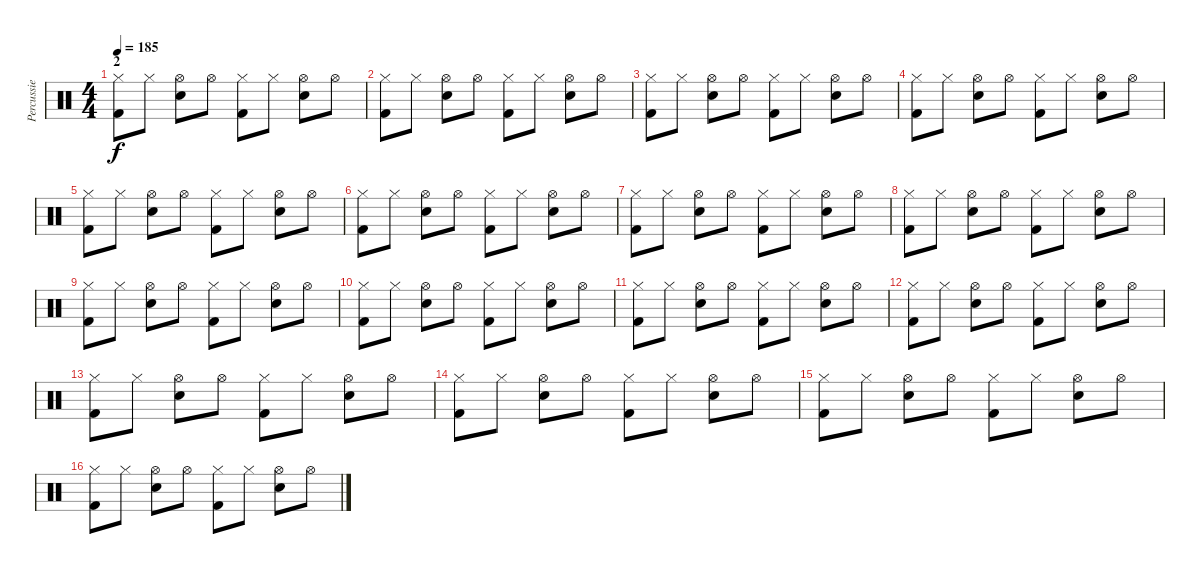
\track ("Percussie" "Percussie") {instrument percussion}
\staff {score}
\articulation defaults
\ts (4 4)
\section ("" "2")
\tempo 185
\clef neutral
\ks c
("Hi-Hat (closed)" "Kick (hit) 2").8{dy f} "Hi-Hat (closed)".8 ("Hi-Hat (open)" "Snare (hit) 2").8 "Hi-Hat (open)".8 ("Hi-Hat (closed)" "Kick (hit) 2").8 "Hi-Hat (closed)".8 ("Hi-Hat (open)" "Snare (hit) 2").8 "Hi-Hat (open)".8 |
("Hi-Hat (closed)" "Kick (hit) 2").8 "Hi-Hat (closed)".8 ("Hi-Hat (open)" "Snare (hit) 2").8 "Hi-Hat (open)".8 ("Hi-Hat (closed)" "Kick (hit) 2").8 "Hi-Hat (closed)".8 ("Hi-Hat (open)" "Snare (hit) 2").8 "Hi-Hat (open)".8 |
("Hi-Hat (closed)" "Kick (hit) 2").8 "Hi-Hat (closed)".8 ("Hi-Hat (open)" "Snare (hit) 2").8 "Hi-Hat (open)".8 ("Hi-Hat (closed)" "Kick (hit) 2").8 "Hi-Hat (closed)".8 ("Hi-Hat (open)" "Snare (hit) 2").8 "Hi-Hat (open)".8 |
("Hi-Hat (closed)" "Kick (hit) 2").8 "Hi-Hat (closed)".8 ("Hi-Hat (open)" "Snare (hit) 2").8 "Hi-Hat (open)".8 ("Hi-Hat (closed)" "Kick (hit) 2").8 "Hi-Hat (closed)".8 ("Hi-Hat (open)" "Snare (hit) 2").8 "Hi-Hat (open)".8 |
("Hi-Hat (closed)" "Kick (hit) 2").8 "Hi-Hat (closed)".8 ("Hi-Hat (open)" "Snare (hit) 2").8 "Hi-Hat (open)".8 ("Hi-Hat (closed)" "Kick (hit) 2").8 "Hi-Hat (closed)".8 ("Hi-Hat (open)" "Snare (hit) 2").8 "Hi-Hat (open)".8 |
("Hi-Hat (closed)" "Kick (hit) 2").8 "Hi-Hat (closed)".8 ("Hi-Hat (open)" "Snare (hit) 2").8 "Hi-Hat (open)".8 ("Hi-Hat (closed)" "Kick (hit) 2").8 "Hi-Hat (closed)".8 ("Hi-Hat (open)" "Snare (hit) 2").8 "Hi-Hat (open)".8 |
("Hi-Hat (closed)" "Kick (hit) 2").8 "Hi-Hat (closed)".8 ("Hi-Hat (open)" "Snare (hit) 2").8 "Hi-Hat (open)".8 ("Hi-Hat (closed)" "Kick (hit) 2").8 "Hi-Hat (closed)".8 ("Hi-Hat (open)" "Snare (hit) 2").8 "Hi-Hat (open)".8 |
("Hi-Hat (closed)" "Kick (hit) 2").8 "Hi-Hat (closed)".8 ("Hi-Hat (open)" "Snare (hit) 2").8 "Hi-Hat (open)".8 ("Hi-Hat (closed)" "Kick (hit) 2").8 "Hi-Hat (closed)".8 ("Hi-Hat (open)" "Snare (hit) 2").8 "Hi-Hat (open)".8 |
("Hi-Hat (closed)" "Kick (hit) 2").8 "Hi-Hat (closed)".8 ("Hi-Hat (open)" "Snare (hit) 2").8 "Hi-Hat (open)".8 ("Hi-Hat (closed)" "Kick (hit) 2").8 "Hi-Hat (closed)".8 ("Hi-Hat (open)" "Snare (hit) 2").8 "Hi-Hat (open)".8 |
("Hi-Hat (closed)" "Kick (hit) 2").8 "Hi-Hat (closed)".8 ("Hi-Hat (open)" "Snare (hit) 2").8 "Hi-Hat (open)".8 ("Hi-Hat (closed)" "Kick (hit) 2").8 "Hi-Hat (closed)".8 ("Hi-Hat (open)" "Snare (hit) 2").8 "Hi-Hat (open)".8 |
("Hi-Hat (closed)" "Kick (hit) 2").8 "Hi-Hat (closed)".8 ("Hi-Hat (open)" "Snare (hit) 2").8 "Hi-Hat (open)".8 ("Hi-Hat (closed)" "Kick (hit) 2").8 "Hi-Hat (closed)".8 ("Hi-Hat (open)" "Snare (hit) 2").8 "Hi-Hat (open)".8 |
("Hi-Hat (closed)" "Kick (hit) 2").8 "Hi-Hat (closed)".8 ("Hi-Hat (open)" "Snare (hit) 2").8 "Hi-Hat (open)".8 ("Hi-Hat (closed)" "Kick (hit) 2").8 "Hi-Hat (closed)".8 ("Hi-Hat (open)" "Snare (hit) 2").8 "Hi-Hat (open)".8 |
("Hi-Hat (closed)" "Kick (hit) 2").8 "Hi-Hat (closed)".8 ("Hi-Hat (open)" "Snare (hit) 2").8 "Hi-Hat (open)".8 ("Hi-Hat (closed)" "Kick (hit) 2").8 "Hi-Hat (closed)".8 ("Hi-Hat (open)" "Snare (hit) 2").8 "Hi-Hat (open)".8 |
("Hi-Hat (closed)" "Kick (hit) 2").8 "Hi-Hat (closed)".8 ("Hi-Hat (open)" "Snare (hit) 2").8 "Hi-Hat (open)".8 ("Hi-Hat (closed)" "Kick (hit) 2").8 "Hi-Hat (closed)".8 ("Hi-Hat (open)" "Snare (hit) 2").8 "Hi-Hat (open)".8 |
("Hi-Hat (closed)" "Kick (hit) 2").8 "Hi-Hat (closed)".8 ("Hi-Hat (open)" "Snare (hit) 2").8 "Hi-Hat (open)".8 ("Hi-Hat (closed)" "Kick (hit) 2").8 "Hi-Hat (closed)".8 ("Hi-Hat (open)" "Snare (hit) 2").8 "Hi-Hat (open)".8 |
("Hi-Hat (closed)" "Kick (hit) 2").8 "Hi-Hat (closed)".8 ("Hi-Hat (open)" "Snare (hit) 2").8 "Hi-Hat (open)".8 ("Hi-Hat (closed)" "Kick (hit) 2").8 "Hi-Hat (closed)".8 ("Hi-Hat (open)" "Snare (hit) 2").8 "Hi-Hat (open)".8
